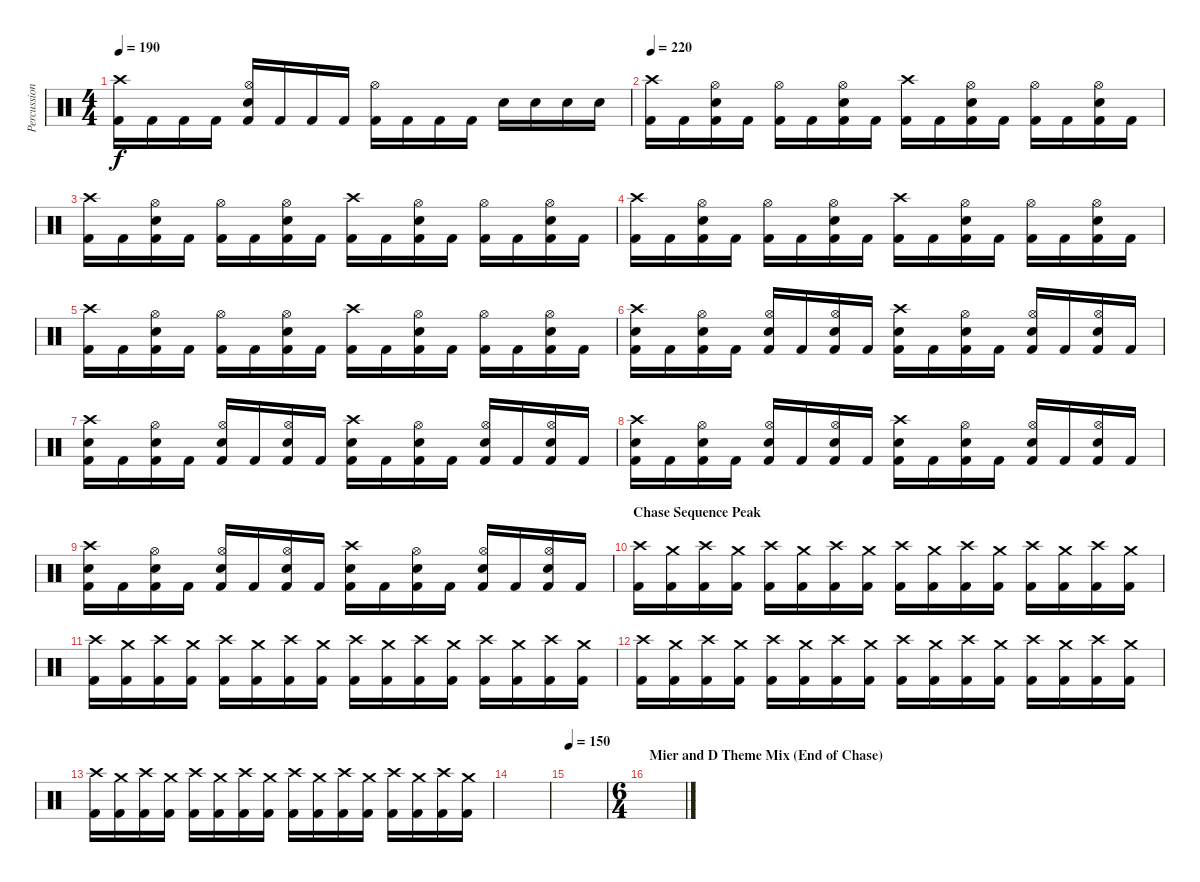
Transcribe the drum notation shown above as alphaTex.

\track ("Percussion" "Percussion") {instrument percussion}
\staff {score}
\articulation defaults
\ts (4 4)
\tempo 190
\clef neutral
\ks c
("Crash high (hit)" "Kick (hit) 2").16{dy f} "Kick (hit) 2".16 "Kick (hit) 2".16 "Kick (hit) 2".16 ("Hi-Hat (open)" "Electric Snare (hit)" "Kick (hit) 2").16 "Kick (hit) 2".16 "Kick (hit) 2".16 "Kick (hit) 2".16 ("Hi-Hat (open)" "Kick (hit) 2").16 "Kick (hit) 2".16 "Kick (hit) 2".16 "Kick (hit) 2".16 "Electric Snare (hit)".16 "Electric Snare (hit)".16 "Electric Snare (hit)".16 "Electric Snare (hit)".16 |
\tempo 220
("Crash high (hit)" "Kick (hit) 2").16 "Kick (hit) 2".16 ("Hi-Hat (open)" "Electric Snare (hit)" "Kick (hit) 2").16 "Kick (hit) 2".16 ("Hi-Hat (open)" "Kick (hit) 2").16 "Kick (hit) 2".16 ("Hi-Hat (open)" "Electric Snare (hit)" "Kick (hit) 2").16 "Kick (hit) 2".16 ("Crash high (hit)" "Kick (hit) 2").16 "Kick (hit) 2".16 ("Hi-Hat (open)" "Electric Snare (hit)" "Kick (hit) 2").16 "Kick (hit) 2".16 ("Hi-Hat (open)" "Kick (hit) 2").16 "Kick (hit) 2".16 ("Hi-Hat (open)" "Electric Snare (hit)" "Kick (hit) 2").16 "Kick (hit) 2".16 |
("Crash high (hit)" "Kick (hit) 2").16 "Kick (hit) 2".16 ("Hi-Hat (open)" "Electric Snare (hit)" "Kick (hit) 2").16 "Kick (hit) 2".16 ("Hi-Hat (open)" "Kick (hit) 2").16 "Kick (hit) 2".16 ("Hi-Hat (open)" "Electric Snare (hit)" "Kick (hit) 2").16 "Kick (hit) 2".16 ("Crash high (hit)" "Kick (hit) 2").16 "Kick (hit) 2".16 ("Hi-Hat (open)" "Electric Snare (hit)" "Kick (hit) 2").16 "Kick (hit) 2".16 ("Hi-Hat (open)" "Kick (hit) 2").16 "Kick (hit) 2".16 ("Hi-Hat (open)" "Electric Snare (hit)" "Kick (hit) 2").16 "Kick (hit) 2".16 |
("Crash high (hit)" "Kick (hit) 2").16 "Kick (hit) 2".16 ("Hi-Hat (open)" "Electric Snare (hit)" "Kick (hit) 2").16 "Kick (hit) 2".16 ("Hi-Hat (open)" "Kick (hit) 2").16 "Kick (hit) 2".16 ("Hi-Hat (open)" "Electric Snare (hit)" "Kick (hit) 2").16 "Kick (hit) 2".16 ("Crash high (hit)" "Kick (hit) 2").16 "Kick (hit) 2".16 ("Hi-Hat (open)" "Electric Snare (hit)" "Kick (hit) 2").16 "Kick (hit) 2".16 ("Hi-Hat (open)" "Kick (hit) 2").16 "Kick (hit) 2".16 ("Hi-Hat (open)" "Electric Snare (hit)" "Kick (hit) 2").16 "Kick (hit) 2".16 |
("Crash high (hit)" "Kick (hit) 2").16 "Kick (hit) 2".16 ("Hi-Hat (open)" "Electric Snare (hit)" "Kick (hit) 2").16 "Kick (hit) 2".16 ("Hi-Hat (open)" "Kick (hit) 2").16 "Kick (hit) 2".16 ("Hi-Hat (open)" "Electric Snare (hit)" "Kick (hit) 2").16 "Kick (hit) 2".16 ("Crash high (hit)" "Kick (hit) 2").16 "Kick (hit) 2".16 ("Hi-Hat (open)" "Electric Snare (hit)" "Kick (hit) 2").16 "Kick (hit) 2".16 ("Hi-Hat (open)" "Kick (hit) 2").16 "Kick (hit) 2".16 ("Hi-Hat (open)" "Electric Snare (hit)" "Kick (hit) 2").16 "Kick (hit) 2".16 |
("Crash high (hit)" "Electric Snare (hit)" "Kick (hit) 2").16 "Kick (hit) 2".16 ("Hi-Hat (open)" "Electric Snare (hit)" "Kick (hit) 2").16 "Kick (hit) 2".16 ("Hi-Hat (open)" "Electric Snare (hit)" "Kick (hit) 2").16 "Kick (hit) 2".16 ("Hi-Hat (open)" "Electric Snare (hit)" "Kick (hit) 2").16 "Kick (hit) 2".16 ("Crash high (hit)" "Electric Snare (hit)" "Kick (hit) 2").16 "Kick (hit) 2".16 ("Hi-Hat (open)" "Electric Snare (hit)" "Kick (hit) 2").16 "Kick (hit) 2".16 ("Hi-Hat (open)" "Electric Snare (hit)" "Kick (hit) 2").16 "Kick (hit) 2".16 ("Hi-Hat (open)" "Electric Snare (hit)" "Kick (hit) 2").16 "Kick (hit) 2".16 |
("Crash high (hit)" "Electric Snare (hit)" "Kick (hit) 2").16 "Kick (hit) 2".16 ("Hi-Hat (open)" "Electric Snare (hit)" "Kick (hit) 2").16 "Kick (hit) 2".16 ("Hi-Hat (open)" "Electric Snare (hit)" "Kick (hit) 2").16 "Kick (hit) 2".16 ("Hi-Hat (open)" "Electric Snare (hit)" "Kick (hit) 2").16 "Kick (hit) 2".16 ("Crash high (hit)" "Electric Snare (hit)" "Kick (hit) 2").16 "Kick (hit) 2".16 ("Hi-Hat (open)" "Electric Snare (hit)" "Kick (hit) 2").16 "Kick (hit) 2".16 ("Hi-Hat (open)" "Electric Snare (hit)" "Kick (hit) 2").16 "Kick (hit) 2".16 ("Hi-Hat (open)" "Electric Snare (hit)" "Kick (hit) 2").16 "Kick (hit) 2".16 |
("Crash high (hit)" "Electric Snare (hit)" "Kick (hit) 2").16 "Kick (hit) 2".16 ("Hi-Hat (open)" "Electric Snare (hit)" "Kick (hit) 2").16 "Kick (hit) 2".16 ("Hi-Hat (open)" "Electric Snare (hit)" "Kick (hit) 2").16 "Kick (hit) 2".16 ("Hi-Hat (open)" "Electric Snare (hit)" "Kick (hit) 2").16 "Kick (hit) 2".16 ("Crash high (hit)" "Electric Snare (hit)" "Kick (hit) 2").16 "Kick (hit) 2".16 ("Hi-Hat (open)" "Electric Snare (hit)" "Kick (hit) 2").16 "Kick (hit) 2".16 ("Hi-Hat (open)" "Electric Snare (hit)" "Kick (hit) 2").16 "Kick (hit) 2".16 ("Hi-Hat (open)" "Electric Snare (hit)" "Kick (hit) 2").16 "Kick (hit) 2".16 |
("Crash high (hit)" "Electric Snare (hit)" "Kick (hit) 2").16 "Kick (hit) 2".16 ("Hi-Hat (open)" "Electric Snare (hit)" "Kick (hit) 2").16 "Kick (hit) 2".16 ("Hi-Hat (open)" "Electric Snare (hit)" "Kick (hit) 2").16 "Kick (hit) 2".16 ("Hi-Hat (open)" "Electric Snare (hit)" "Kick (hit) 2").16 "Kick (hit) 2".16 ("Crash high (hit)" "Electric Snare (hit)" "Kick (hit) 2").16 "Kick (hit) 2".16 ("Hi-Hat (open)" "Electric Snare (hit)" "Kick (hit) 2").16 "Kick (hit) 2".16 ("Hi-Hat (open)" "Electric Snare (hit)" "Kick (hit) 2").16 "Kick (hit) 2".16 ("Hi-Hat (open)" "Electric Snare (hit)" "Kick (hit) 2").16 "Kick (hit) 2".16 |
\section ("" "Chase Sequence Peak")
("Crash high (hit)" "Kick (hit) 2").16 ("Crash medium (hit)" "Kick (hit) 2").16 ("Crash high (hit)" "Kick (hit) 2").16 ("Crash medium (hit)" "Kick (hit) 2").16 ("Crash high (hit)" "Kick (hit) 2").16 ("Crash medium (hit)" "Kick (hit) 2").16 ("Crash high (hit)" "Kick (hit) 2").16 ("Crash medium (hit)" "Kick (hit) 2").16 ("Crash high (hit)" "Kick (hit) 2").16 ("Crash medium (hit)" "Kick (hit) 2").16 ("Crash high (hit)" "Kick (hit) 2").16 ("Crash medium (hit)" "Kick (hit) 2").16 ("Crash high (hit)" "Kick (hit) 2").16 ("Crash medium (hit)" "Kick (hit) 2").16 ("Crash high (hit)" "Kick (hit) 2").16 ("Crash medium (hit)" "Kick (hit) 2").16 |
("Crash high (hit)" "Kick (hit) 2").16 ("Crash medium (hit)" "Kick (hit) 2").16 ("Crash high (hit)" "Kick (hit) 2").16 ("Crash medium (hit)" "Kick (hit) 2").16 ("Crash high (hit)" "Kick (hit) 2").16 ("Crash medium (hit)" "Kick (hit) 2").16 ("Crash high (hit)" "Kick (hit) 2").16 ("Crash medium (hit)" "Kick (hit) 2").16 ("Crash high (hit)" "Kick (hit) 2").16 ("Crash medium (hit)" "Kick (hit) 2").16 ("Crash high (hit)" "Kick (hit) 2").16 ("Crash medium (hit)" "Kick (hit) 2").16 ("Crash high (hit)" "Kick (hit) 2").16 ("Crash medium (hit)" "Kick (hit) 2").16 ("Crash high (hit)" "Kick (hit) 2").16 ("Crash medium (hit)" "Kick (hit) 2").16 |
("Crash high (hit)" "Kick (hit) 2").16 ("Crash medium (hit)" "Kick (hit) 2").16 ("Crash high (hit)" "Kick (hit) 2").16 ("Crash medium (hit)" "Kick (hit) 2").16 ("Crash high (hit)" "Kick (hit) 2").16 ("Crash medium (hit)" "Kick (hit) 2").16 ("Crash high (hit)" "Kick (hit) 2").16 ("Crash medium (hit)" "Kick (hit) 2").16 ("Crash high (hit)" "Kick (hit) 2").16 ("Crash medium (hit)" "Kick (hit) 2").16 ("Crash high (hit)" "Kick (hit) 2").16 ("Crash medium (hit)" "Kick (hit) 2").16 ("Crash high (hit)" "Kick (hit) 2").16 ("Crash medium (hit)" "Kick (hit) 2").16 ("Crash high (hit)" "Kick (hit) 2").16 ("Crash medium (hit)" "Kick (hit) 2").16 |
("Crash high (hit)" "Kick (hit) 2").16 ("Crash medium (hit)" "Kick (hit) 2").16 ("Crash high (hit)" "Kick (hit) 2").16 ("Crash medium (hit)" "Kick (hit) 2").16 ("Crash high (hit)" "Kick (hit) 2").16 ("Crash medium (hit)" "Kick (hit) 2").16 ("Crash high (hit)" "Kick (hit) 2").16 ("Crash medium (hit)" "Kick (hit) 2").16 ("Crash high (hit)" "Kick (hit) 2").16 ("Crash medium (hit)" "Kick (hit) 2").16 ("Crash high (hit)" "Kick (hit) 2").16 ("Crash medium (hit)" "Kick (hit) 2").16 ("Crash high (hit)" "Kick (hit) 2").16 ("Crash medium (hit)" "Kick (hit) 2").16 ("Crash high (hit)" "Kick (hit) 2").16 ("Crash medium (hit)" "Kick (hit) 2").16 |
|
\tempo 150
|
\ts (6 4)
\section ("" "Mier and D Theme Mix (End of Chase)")
